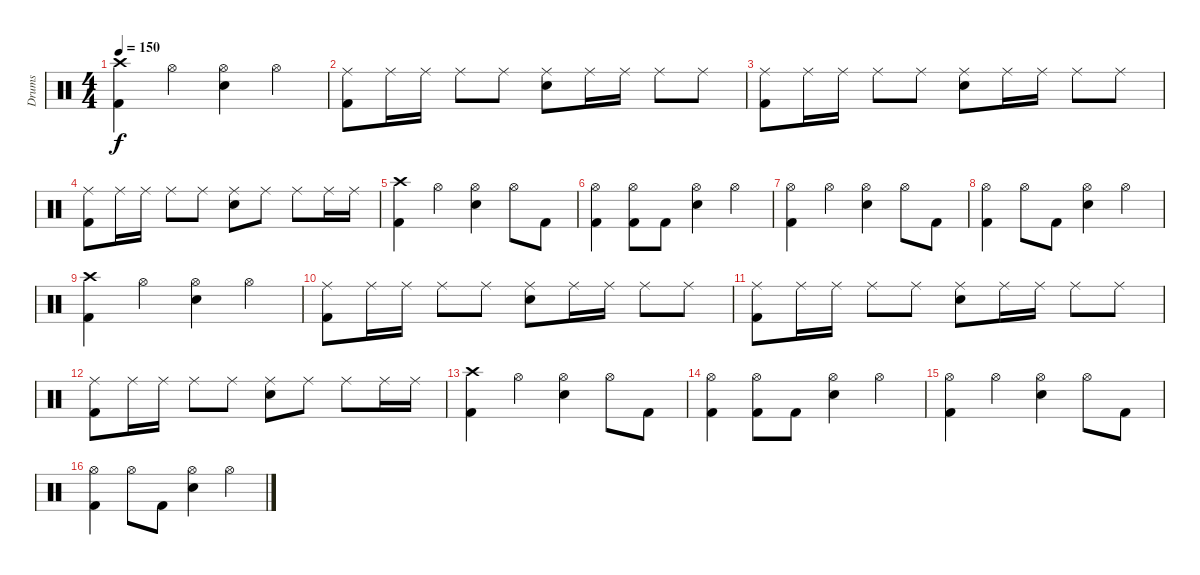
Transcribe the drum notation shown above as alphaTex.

\track ("Drums" "Drums") {instrument percussion}
\staff {score}
\articulation defaults
\ts (4 4)
\tempo 150
\clef neutral
\ks c
("Crash high (hit)" "Kick (hit) 2").4{dy f} "Hi-Hat (open)".4 ("Hi-Hat (open)" "Electric Snare (hit)").4 "Hi-Hat (open)".4 |
("Ride (middle)" "Kick (hit) 2").8 "Ride (middle)".16 "Ride (middle)".16 "Ride (middle)".8 "Ride (middle)".8 ("Ride (middle)" "Electric Snare (hit)").8 "Ride (middle)".16 "Ride (middle)".16 "Ride (middle)".8 "Ride (middle)".8 |
("Ride (middle)" "Kick (hit) 2").8 "Ride (middle)".16 "Ride (middle)".16 "Ride (middle)".8 "Ride (middle)".8 ("Ride (middle)" "Electric Snare (hit)").8 "Ride (middle)".16 "Ride (middle)".16 "Ride (middle)".8 "Ride (middle)".8 |
("Ride (middle)" "Kick (hit) 2").8 "Ride (middle)".16 "Ride (middle)".16 "Ride (middle)".8 "Ride (middle)".8 ("Ride (middle)" "Electric Snare (hit)").8 "Ride (middle)".8 "Ride (middle)".8 "Ride (middle)".16 "Ride (middle)".16 |
("Crash high (hit)" "Kick (hit) 2").4 "Hi-Hat (open)".4 ("Hi-Hat (open)" "Electric Snare (hit)").4 "Hi-Hat (open)".8 "Kick (hit) 2".8 |
("Hi-Hat (open)" "Kick (hit) 2").4 ("Hi-Hat (open)" "Kick (hit) 2").8 "Kick (hit) 2".8 ("Hi-Hat (open)" "Electric Snare (hit)").4 "Hi-Hat (open)".4 |
("Hi-Hat (open)" "Kick (hit) 2").4 "Hi-Hat (open)".4 ("Hi-Hat (open)" "Electric Snare (hit)").4 "Hi-Hat (open)".8 "Kick (hit) 2".8 |
("Hi-Hat (open)" "Kick (hit) 2").4 "Hi-Hat (open)".8 "Kick (hit) 2".8 ("Hi-Hat (open)" "Electric Snare (hit)").4 "Hi-Hat (open)".4 |
("Crash high (hit)" "Kick (hit) 2").4 "Hi-Hat (open)".4 ("Hi-Hat (open)" "Electric Snare (hit)").4 "Hi-Hat (open)".4 |
("Ride (middle)" "Kick (hit) 2").8 "Ride (middle)".16 "Ride (middle)".16 "Ride (middle)".8 "Ride (middle)".8 ("Ride (middle)" "Electric Snare (hit)").8 "Ride (middle)".16 "Ride (middle)".16 "Ride (middle)".8 "Ride (middle)".8 |
("Ride (middle)" "Kick (hit) 2").8 "Ride (middle)".16 "Ride (middle)".16 "Ride (middle)".8 "Ride (middle)".8 ("Ride (middle)" "Electric Snare (hit)").8 "Ride (middle)".16 "Ride (middle)".16 "Ride (middle)".8 "Ride (middle)".8 |
("Ride (middle)" "Kick (hit) 2").8 "Ride (middle)".16 "Ride (middle)".16 "Ride (middle)".8 "Ride (middle)".8 ("Ride (middle)" "Electric Snare (hit)").8 "Ride (middle)".8 "Ride (middle)".8 "Ride (middle)".16 "Ride (middle)".16 |
("Crash high (hit)" "Kick (hit) 2").4 "Hi-Hat (open)".4 ("Hi-Hat (open)" "Electric Snare (hit)").4 "Hi-Hat (open)".8 "Kick (hit) 2".8 |
("Hi-Hat (open)" "Kick (hit) 2").4 ("Hi-Hat (open)" "Kick (hit) 2").8 "Kick (hit) 2".8 ("Hi-Hat (open)" "Electric Snare (hit)").4 "Hi-Hat (open)".4 |
("Hi-Hat (open)" "Kick (hit) 2").4 "Hi-Hat (open)".4 ("Hi-Hat (open)" "Electric Snare (hit)").4 "Hi-Hat (open)".8 "Kick (hit) 2".8 |
("Hi-Hat (open)" "Kick (hit) 2").4 "Hi-Hat (open)".8 "Kick (hit) 2".8 ("Hi-Hat (open)" "Electric Snare (hit)").4 "Hi-Hat (open)".4
